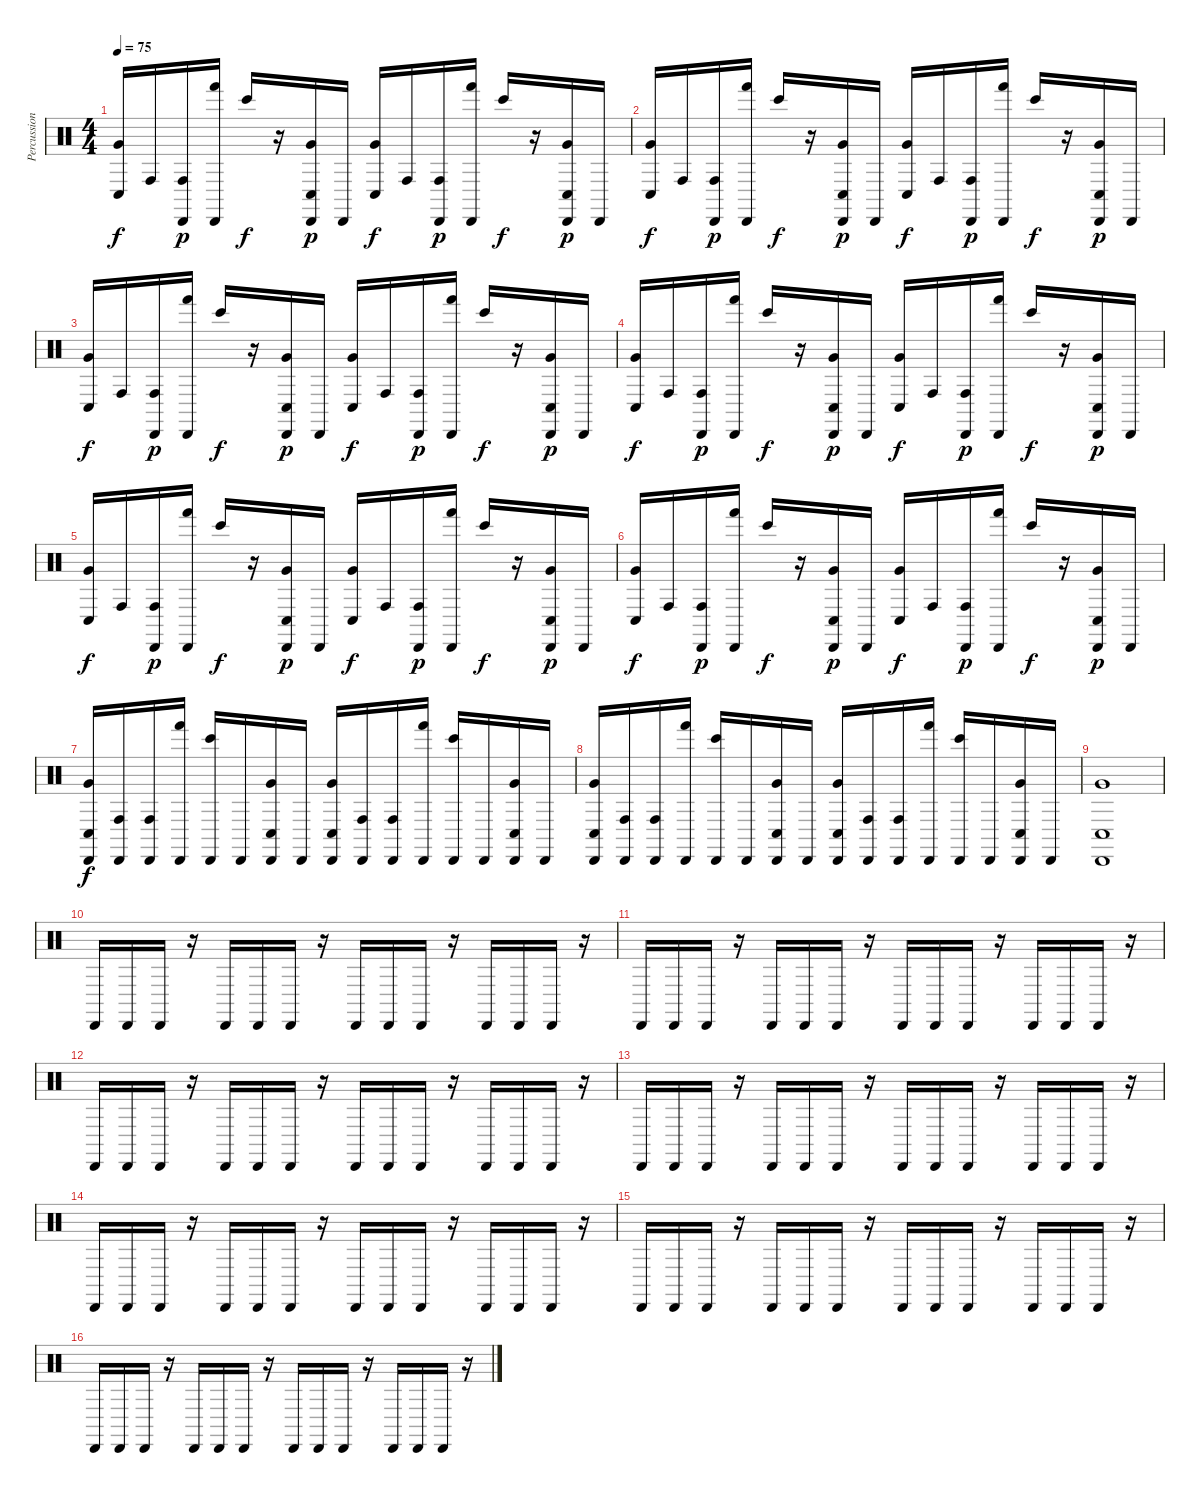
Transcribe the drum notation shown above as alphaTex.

\track ("Percussions" "Percussion") {instrument percussion}
\staff {score}
\articulation defaults
\ts (4 4)
\tempo 75
\clef neutral
\ks c
("Conga low (hit)" "Very Low Tom (hit)").16{dy f} "Conga high (hit)".16 ("Conga high (hit)" "Cabasa (hit)").16{dy p} ("Hand (hit)" "Cabasa (hit)").16 "Bongo High (hit)".16{dy f} r.16 ("Conga low (hit)" "Very Low Tom (hit)" "Cabasa (hit)").16{dy p} "Cabasa (hit)".16 ("Conga low (hit)" "Very Low Tom (hit)").16{dy f} "Conga high (hit)".16 ("Conga high (hit)" "Cabasa (hit)").16{dy p} ("Hand (hit)" "Cabasa (hit)").16 "Bongo High (hit)".16{dy f} r.16 ("Conga low (hit)" "Very Low Tom (hit)" "Cabasa (hit)").16{dy p} "Cabasa (hit)".16 |
("Conga low (hit)" "Very Low Tom (hit)").16{dy f} "Conga high (hit)".16 ("Conga high (hit)" "Cabasa (hit)").16{dy p} ("Hand (hit)" "Cabasa (hit)").16 "Bongo High (hit)".16{dy f} r.16 ("Conga low (hit)" "Very Low Tom (hit)" "Cabasa (hit)").16{dy p} "Cabasa (hit)".16 ("Conga low (hit)" "Very Low Tom (hit)").16{dy f} "Conga high (hit)".16 ("Conga high (hit)" "Cabasa (hit)").16{dy p} ("Hand (hit)" "Cabasa (hit)").16 "Bongo High (hit)".16{dy f} r.16 ("Conga low (hit)" "Very Low Tom (hit)" "Cabasa (hit)").16{dy p} "Cabasa (hit)".16 |
("Conga low (hit)" "Very Low Tom (hit)").16{dy f} "Conga high (hit)".16 ("Conga high (hit)" "Cabasa (hit)").16{dy p} ("Hand (hit)" "Cabasa (hit)").16 "Bongo High (hit)".16{dy f} r.16 ("Conga low (hit)" "Very Low Tom (hit)" "Cabasa (hit)").16{dy p} "Cabasa (hit)".16 ("Conga low (hit)" "Very Low Tom (hit)").16{dy f} "Conga high (hit)".16 ("Conga high (hit)" "Cabasa (hit)").16{dy p} ("Hand (hit)" "Cabasa (hit)").16 "Bongo High (hit)".16{dy f} r.16 ("Conga low (hit)" "Very Low Tom (hit)" "Cabasa (hit)").16{dy p} "Cabasa (hit)".16 |
("Conga low (hit)" "Very Low Tom (hit)").16{dy f} "Conga high (hit)".16 ("Conga high (hit)" "Cabasa (hit)").16{dy p} ("Hand (hit)" "Cabasa (hit)").16 "Bongo High (hit)".16{dy f} r.16 ("Conga low (hit)" "Very Low Tom (hit)" "Cabasa (hit)").16{dy p} "Cabasa (hit)".16 ("Conga low (hit)" "Very Low Tom (hit)").16{dy f} "Conga high (hit)".16 ("Conga high (hit)" "Cabasa (hit)").16{dy p} ("Hand (hit)" "Cabasa (hit)").16 "Bongo High (hit)".16{dy f} r.16 ("Conga low (hit)" "Very Low Tom (hit)" "Cabasa (hit)").16{dy p} "Cabasa (hit)".16 |
("Conga low (hit)" "Very Low Tom (hit)").16{dy f} "Conga high (hit)".16 ("Conga high (hit)" "Cabasa (hit)").16{dy p} ("Hand (hit)" "Cabasa (hit)").16 "Bongo High (hit)".16{dy f} r.16 ("Conga low (hit)" "Very Low Tom (hit)" "Cabasa (hit)").16{dy p} "Cabasa (hit)".16 ("Conga low (hit)" "Very Low Tom (hit)").16{dy f} "Conga high (hit)".16 ("Conga high (hit)" "Cabasa (hit)").16{dy p} ("Hand (hit)" "Cabasa (hit)").16 "Bongo High (hit)".16{dy f} r.16 ("Conga low (hit)" "Very Low Tom (hit)" "Cabasa (hit)").16{dy p} "Cabasa (hit)".16 |
("Conga low (hit)" "Very Low Tom (hit)").16{dy f} "Conga high (hit)".16 ("Conga high (hit)" "Cabasa (hit)").16{dy p} ("Hand (hit)" "Cabasa (hit)").16 "Bongo High (hit)".16{dy f} r.16 ("Conga low (hit)" "Very Low Tom (hit)" "Cabasa (hit)").16{dy p} "Cabasa (hit)".16 ("Conga low (hit)" "Very Low Tom (hit)").16{dy f} "Conga high (hit)".16 ("Conga high (hit)" "Cabasa (hit)").16{dy p} ("Hand (hit)" "Cabasa (hit)").16 "Bongo High (hit)".16{dy f} r.16 ("Conga low (hit)" "Very Low Tom (hit)" "Cabasa (hit)").16{dy p} "Cabasa (hit)".16 |
("Conga low (hit)" "Very Low Tom (hit)" "Cabasa (hit)").16{dy f} ("Conga high (hit)" "Cabasa (hit)").16 ("Conga high (hit)" "Cabasa (hit)").16 ("Hand (hit)" "Cabasa (hit)").16 ("Bongo High (hit)" "Cabasa (hit)").16 "Cabasa (hit)".16 ("Conga low (hit)" "Very Low Tom (hit)" "Cabasa (hit)").16 "Cabasa (hit)".16 ("Conga low (hit)" "Very Low Tom (hit)" "Cabasa (hit)").16 ("Conga high (hit)" "Cabasa (hit)").16 ("Conga high (hit)" "Cabasa (hit)").16 ("Hand (hit)" "Cabasa (hit)").16 ("Bongo High (hit)" "Cabasa (hit)").16 "Cabasa (hit)".16 ("Conga low (hit)" "Very Low Tom (hit)" "Cabasa (hit)").16 "Cabasa (hit)".16 |
("Conga low (hit)" "Very Low Tom (hit)" "Cabasa (hit)").16 ("Conga high (hit)" "Cabasa (hit)").16 ("Conga high (hit)" "Cabasa (hit)").16 ("Hand (hit)" "Cabasa (hit)").16 ("Bongo High (hit)" "Cabasa (hit)").16 "Cabasa (hit)".16 ("Conga low (hit)" "Very Low Tom (hit)" "Cabasa (hit)").16 "Cabasa (hit)".16 ("Conga low (hit)" "Very Low Tom (hit)" "Cabasa (hit)").16 ("Conga high (hit)" "Cabasa (hit)").16 ("Conga high (hit)" "Cabasa (hit)").16 ("Hand (hit)" "Cabasa (hit)").16 ("Bongo High (hit)" "Cabasa (hit)").16 "Cabasa (hit)".16 ("Conga low (hit)" "Very Low Tom (hit)" "Cabasa (hit)").16 "Cabasa (hit)".16 |
("Conga low (hit)" "Very Low Tom (hit)" "Cabasa (hit)").1 |
"Cabasa (hit)".16 "Cabasa (hit)".16 "Cabasa (hit)".16 r.16 "Cabasa (hit)".16 "Cabasa (hit)".16 "Cabasa (hit)".16 r.16 "Cabasa (hit)".16 "Cabasa (hit)".16 "Cabasa (hit)".16 r.16 "Cabasa (hit)".16 "Cabasa (hit)".16 "Cabasa (hit)".16 r.16 |
"Cabasa (hit)".16 "Cabasa (hit)".16 "Cabasa (hit)".16 r.16 "Cabasa (hit)".16 "Cabasa (hit)".16 "Cabasa (hit)".16 r.16 "Cabasa (hit)".16 "Cabasa (hit)".16 "Cabasa (hit)".16 r.16 "Cabasa (hit)".16 "Cabasa (hit)".16 "Cabasa (hit)".16 r.16 |
"Cabasa (hit)".16 "Cabasa (hit)".16 "Cabasa (hit)".16 r.16 "Cabasa (hit)".16 "Cabasa (hit)".16 "Cabasa (hit)".16 r.16 "Cabasa (hit)".16 "Cabasa (hit)".16 "Cabasa (hit)".16 r.16 "Cabasa (hit)".16 "Cabasa (hit)".16 "Cabasa (hit)".16 r.16 |
"Cabasa (hit)".16 "Cabasa (hit)".16 "Cabasa (hit)".16 r.16 "Cabasa (hit)".16 "Cabasa (hit)".16 "Cabasa (hit)".16 r.16 "Cabasa (hit)".16 "Cabasa (hit)".16 "Cabasa (hit)".16 r.16 "Cabasa (hit)".16 "Cabasa (hit)".16 "Cabasa (hit)".16 r.16 |
"Cabasa (hit)".16 "Cabasa (hit)".16 "Cabasa (hit)".16 r.16 "Cabasa (hit)".16 "Cabasa (hit)".16 "Cabasa (hit)".16 r.16 "Cabasa (hit)".16 "Cabasa (hit)".16 "Cabasa (hit)".16 r.16 "Cabasa (hit)".16 "Cabasa (hit)".16 "Cabasa (hit)".16 r.16 |
"Cabasa (hit)".16 "Cabasa (hit)".16 "Cabasa (hit)".16 r.16 "Cabasa (hit)".16 "Cabasa (hit)".16 "Cabasa (hit)".16 r.16 "Cabasa (hit)".16 "Cabasa (hit)".16 "Cabasa (hit)".16 r.16 "Cabasa (hit)".16 "Cabasa (hit)".16 "Cabasa (hit)".16 r.16 |
"Cabasa (hit)".16 "Cabasa (hit)".16 "Cabasa (hit)".16 r.16 "Cabasa (hit)".16 "Cabasa (hit)".16 "Cabasa (hit)".16 r.16 "Cabasa (hit)".16 "Cabasa (hit)".16 "Cabasa (hit)".16 r.16 "Cabasa (hit)".16 "Cabasa (hit)".16 "Cabasa (hit)".16 r.16
